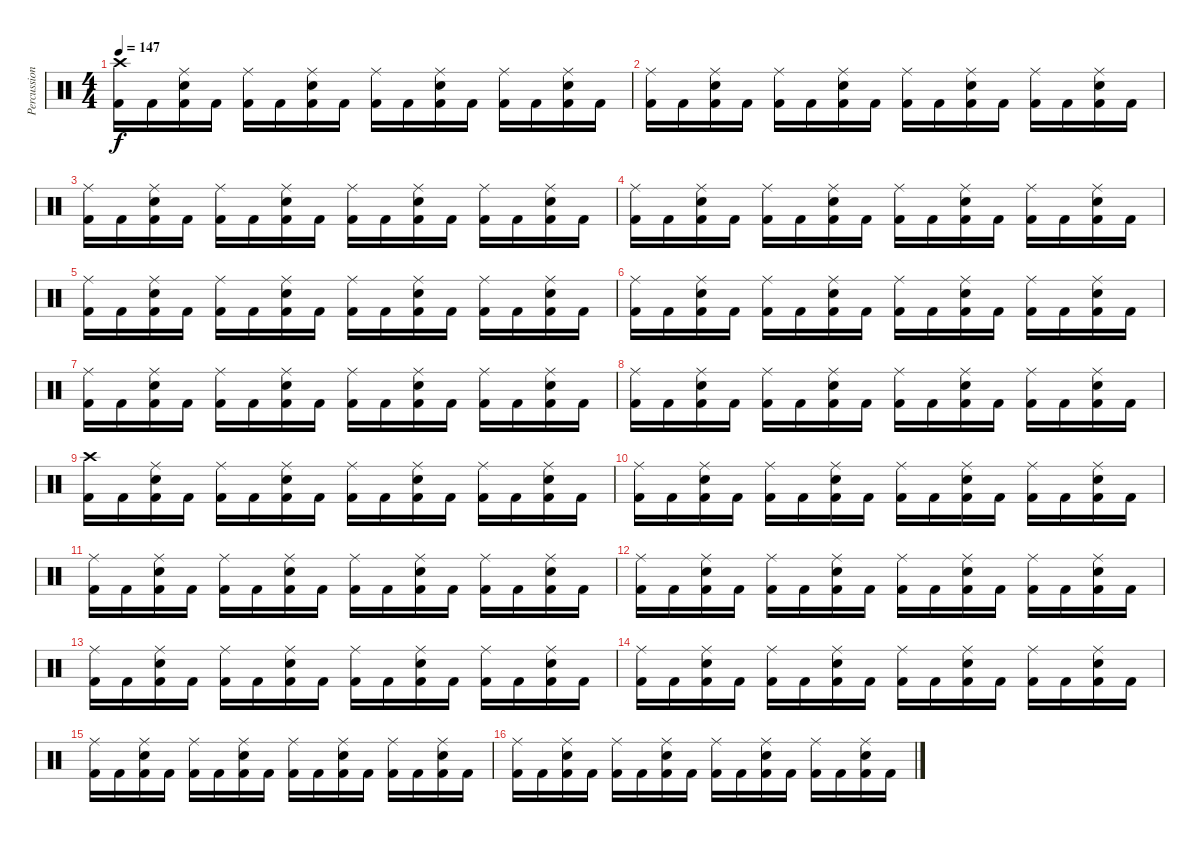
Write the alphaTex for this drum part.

\track ("Percussion" "Percussion") {instrument percussion}
\staff {score}
\articulation defaults
\ts (4 4)
\tempo 147
\clef neutral
\ks c
("Kick (hit) 2" "Crash high (hit)").16{dy f} "Kick (hit) 2".16 ("Kick (hit) 2" "Snare (hit) 2" "Ride (middle)").16 "Kick (hit) 2".16 ("Kick (hit) 2" "Ride (middle)").16 "Kick (hit) 2".16 ("Kick (hit) 2" "Snare (hit) 2" "Ride (middle)").16 "Kick (hit) 2".16 ("Kick (hit) 2" "Ride (middle)").16 "Kick (hit) 2".16 ("Kick (hit) 2" "Snare (hit) 2" "Ride (middle)").16 "Kick (hit) 2".16 ("Kick (hit) 2" "Ride (middle)").16 "Kick (hit) 2".16 ("Kick (hit) 2" "Snare (hit) 2" "Ride (middle)").16 "Kick (hit) 2".16 |
("Kick (hit) 2" "Ride (middle)").16 "Kick (hit) 2".16 ("Kick (hit) 2" "Snare (hit) 2" "Ride (middle)").16 "Kick (hit) 2".16 ("Kick (hit) 2" "Ride (middle)").16 "Kick (hit) 2".16 ("Kick (hit) 2" "Snare (hit) 2" "Ride (middle)").16 "Kick (hit) 2".16 ("Kick (hit) 2" "Ride (middle)").16 "Kick (hit) 2".16 ("Kick (hit) 2" "Snare (hit) 2" "Ride (middle)").16 "Kick (hit) 2".16 ("Kick (hit) 2" "Ride (middle)").16 "Kick (hit) 2".16 ("Kick (hit) 2" "Snare (hit) 2" "Ride (middle)").16 "Kick (hit) 2".16 |
("Kick (hit) 2" "Ride (middle)").16 "Kick (hit) 2".16 ("Kick (hit) 2" "Snare (hit) 2" "Ride (middle)").16 "Kick (hit) 2".16 ("Kick (hit) 2" "Ride (middle)").16 "Kick (hit) 2".16 ("Kick (hit) 2" "Snare (hit) 2" "Ride (middle)").16 "Kick (hit) 2".16 ("Kick (hit) 2" "Ride (middle)").16 "Kick (hit) 2".16 ("Kick (hit) 2" "Snare (hit) 2" "Ride (middle)").16 "Kick (hit) 2".16 ("Kick (hit) 2" "Ride (middle)").16 "Kick (hit) 2".16 ("Kick (hit) 2" "Snare (hit) 2" "Ride (middle)").16 "Kick (hit) 2".16 |
("Kick (hit) 2" "Ride (middle)").16 "Kick (hit) 2".16 ("Kick (hit) 2" "Snare (hit) 2" "Ride (middle)").16 "Kick (hit) 2".16 ("Kick (hit) 2" "Ride (middle)").16 "Kick (hit) 2".16 ("Kick (hit) 2" "Snare (hit) 2" "Ride (middle)").16 "Kick (hit) 2".16 ("Kick (hit) 2" "Ride (middle)").16 "Kick (hit) 2".16 ("Kick (hit) 2" "Snare (hit) 2" "Ride (middle)").16 "Kick (hit) 2".16 ("Kick (hit) 2" "Ride (middle)").16 "Kick (hit) 2".16 ("Kick (hit) 2" "Snare (hit) 2" "Ride (middle)").16 "Kick (hit) 2".16 |
("Kick (hit) 2" "Ride (middle)").16 "Kick (hit) 2".16 ("Kick (hit) 2" "Snare (hit) 2" "Ride (middle)").16 "Kick (hit) 2".16 ("Kick (hit) 2" "Ride (middle)").16 "Kick (hit) 2".16 ("Kick (hit) 2" "Snare (hit) 2" "Ride (middle)").16 "Kick (hit) 2".16 ("Kick (hit) 2" "Ride (middle)").16 "Kick (hit) 2".16 ("Kick (hit) 2" "Snare (hit) 2" "Ride (middle)").16 "Kick (hit) 2".16 ("Kick (hit) 2" "Ride (middle)").16 "Kick (hit) 2".16 ("Kick (hit) 2" "Snare (hit) 2" "Ride (middle)").16 "Kick (hit) 2".16 |
("Kick (hit) 2" "Ride (middle)").16 "Kick (hit) 2".16 ("Kick (hit) 2" "Snare (hit) 2" "Ride (middle)").16 "Kick (hit) 2".16 ("Kick (hit) 2" "Ride (middle)").16 "Kick (hit) 2".16 ("Kick (hit) 2" "Snare (hit) 2" "Ride (middle)").16 "Kick (hit) 2".16 ("Kick (hit) 2" "Ride (middle)").16 "Kick (hit) 2".16 ("Kick (hit) 2" "Snare (hit) 2" "Ride (middle)").16 "Kick (hit) 2".16 ("Kick (hit) 2" "Ride (middle)").16 "Kick (hit) 2".16 ("Kick (hit) 2" "Snare (hit) 2" "Ride (middle)").16 "Kick (hit) 2".16 |
("Kick (hit) 2" "Ride (middle)").16 "Kick (hit) 2".16 ("Kick (hit) 2" "Snare (hit) 2" "Ride (middle)").16 "Kick (hit) 2".16 ("Kick (hit) 2" "Ride (middle)").16 "Kick (hit) 2".16 ("Kick (hit) 2" "Snare (hit) 2" "Ride (middle)").16 "Kick (hit) 2".16 ("Kick (hit) 2" "Ride (middle)").16 "Kick (hit) 2".16 ("Kick (hit) 2" "Snare (hit) 2" "Ride (middle)").16 "Kick (hit) 2".16 ("Kick (hit) 2" "Ride (middle)").16 "Kick (hit) 2".16 ("Kick (hit) 2" "Snare (hit) 2" "Ride (middle)").16 "Kick (hit) 2".16 |
("Kick (hit) 2" "Ride (middle)").16 "Kick (hit) 2".16 ("Kick (hit) 2" "Snare (hit) 2" "Ride (middle)").16 "Kick (hit) 2".16 ("Kick (hit) 2" "Ride (middle)").16 "Kick (hit) 2".16 ("Kick (hit) 2" "Snare (hit) 2" "Ride (middle)").16 "Kick (hit) 2".16 ("Kick (hit) 2" "Ride (middle)").16 "Kick (hit) 2".16 ("Kick (hit) 2" "Snare (hit) 2" "Ride (middle)").16 "Kick (hit) 2".16 ("Kick (hit) 2" "Ride (middle)").16 "Kick (hit) 2".16 ("Kick (hit) 2" "Snare (hit) 2" "Ride (middle)").16 "Kick (hit) 2".16 |
("Kick (hit) 2" "Crash high (hit)").16 "Kick (hit) 2".16 ("Kick (hit) 2" "Snare (hit) 2" "Ride (middle)").16 "Kick (hit) 2".16 ("Kick (hit) 2" "Ride (middle)").16 "Kick (hit) 2".16 ("Kick (hit) 2" "Snare (hit) 2" "Ride (middle)").16 "Kick (hit) 2".16 ("Kick (hit) 2" "Ride (middle)").16 "Kick (hit) 2".16 ("Kick (hit) 2" "Snare (hit) 2" "Ride (middle)").16 "Kick (hit) 2".16 ("Kick (hit) 2" "Ride (middle)").16 "Kick (hit) 2".16 ("Kick (hit) 2" "Snare (hit) 2" "Ride (middle)").16 "Kick (hit) 2".16 |
("Kick (hit) 2" "Ride (middle)").16 "Kick (hit) 2".16 ("Kick (hit) 2" "Snare (hit) 2" "Ride (middle)").16 "Kick (hit) 2".16 ("Kick (hit) 2" "Ride (middle)").16 "Kick (hit) 2".16 ("Kick (hit) 2" "Snare (hit) 2" "Ride (middle)").16 "Kick (hit) 2".16 ("Kick (hit) 2" "Ride (middle)").16 "Kick (hit) 2".16 ("Kick (hit) 2" "Snare (hit) 2" "Ride (middle)").16 "Kick (hit) 2".16 ("Kick (hit) 2" "Ride (middle)").16 "Kick (hit) 2".16 ("Kick (hit) 2" "Snare (hit) 2" "Ride (middle)").16 "Kick (hit) 2".16 |
("Kick (hit) 2" "Ride (middle)").16 "Kick (hit) 2".16 ("Kick (hit) 2" "Snare (hit) 2" "Ride (middle)").16 "Kick (hit) 2".16 ("Kick (hit) 2" "Ride (middle)").16 "Kick (hit) 2".16 ("Kick (hit) 2" "Snare (hit) 2" "Ride (middle)").16 "Kick (hit) 2".16 ("Kick (hit) 2" "Ride (middle)").16 "Kick (hit) 2".16 ("Kick (hit) 2" "Snare (hit) 2" "Ride (middle)").16 "Kick (hit) 2".16 ("Kick (hit) 2" "Ride (middle)").16 "Kick (hit) 2".16 ("Kick (hit) 2" "Snare (hit) 2" "Ride (middle)").16 "Kick (hit) 2".16 |
("Kick (hit) 2" "Ride (middle)").16 "Kick (hit) 2".16 ("Kick (hit) 2" "Snare (hit) 2" "Ride (middle)").16 "Kick (hit) 2".16 ("Kick (hit) 2" "Ride (middle)").16 "Kick (hit) 2".16 ("Kick (hit) 2" "Snare (hit) 2" "Ride (middle)").16 "Kick (hit) 2".16 ("Kick (hit) 2" "Ride (middle)").16 "Kick (hit) 2".16 ("Kick (hit) 2" "Snare (hit) 2" "Ride (middle)").16 "Kick (hit) 2".16 ("Kick (hit) 2" "Ride (middle)").16 "Kick (hit) 2".16 ("Kick (hit) 2" "Snare (hit) 2" "Ride (middle)").16 "Kick (hit) 2".16 |
("Kick (hit) 2" "Ride (middle)").16 "Kick (hit) 2".16 ("Kick (hit) 2" "Snare (hit) 2" "Ride (middle)").16 "Kick (hit) 2".16 ("Kick (hit) 2" "Ride (middle)").16 "Kick (hit) 2".16 ("Kick (hit) 2" "Snare (hit) 2" "Ride (middle)").16 "Kick (hit) 2".16 ("Kick (hit) 2" "Ride (middle)").16 "Kick (hit) 2".16 ("Kick (hit) 2" "Snare (hit) 2" "Ride (middle)").16 "Kick (hit) 2".16 ("Kick (hit) 2" "Ride (middle)").16 "Kick (hit) 2".16 ("Kick (hit) 2" "Snare (hit) 2" "Ride (middle)").16 "Kick (hit) 2".16 |
("Kick (hit) 2" "Ride (middle)").16 "Kick (hit) 2".16 ("Kick (hit) 2" "Snare (hit) 2" "Ride (middle)").16 "Kick (hit) 2".16 ("Kick (hit) 2" "Ride (middle)").16 "Kick (hit) 2".16 ("Kick (hit) 2" "Snare (hit) 2" "Ride (middle)").16 "Kick (hit) 2".16 ("Kick (hit) 2" "Ride (middle)").16 "Kick (hit) 2".16 ("Kick (hit) 2" "Snare (hit) 2" "Ride (middle)").16 "Kick (hit) 2".16 ("Kick (hit) 2" "Ride (middle)").16 "Kick (hit) 2".16 ("Kick (hit) 2" "Snare (hit) 2" "Ride (middle)").16 "Kick (hit) 2".16 |
("Kick (hit) 2" "Ride (middle)").16 "Kick (hit) 2".16 ("Kick (hit) 2" "Snare (hit) 2" "Ride (middle)").16 "Kick (hit) 2".16 ("Kick (hit) 2" "Ride (middle)").16 "Kick (hit) 2".16 ("Kick (hit) 2" "Snare (hit) 2" "Ride (middle)").16 "Kick (hit) 2".16 ("Kick (hit) 2" "Ride (middle)").16 "Kick (hit) 2".16 ("Kick (hit) 2" "Snare (hit) 2" "Ride (middle)").16 "Kick (hit) 2".16 ("Kick (hit) 2" "Ride (middle)").16 "Kick (hit) 2".16 ("Kick (hit) 2" "Snare (hit) 2" "Ride (middle)").16 "Kick (hit) 2".16 |
("Kick (hit) 2" "Ride (middle)").16 "Kick (hit) 2".16 ("Kick (hit) 2" "Snare (hit) 2" "Ride (middle)").16 "Kick (hit) 2".16 ("Kick (hit) 2" "Ride (middle)").16 "Kick (hit) 2".16 ("Kick (hit) 2" "Snare (hit) 2" "Ride (middle)").16 "Kick (hit) 2".16 ("Kick (hit) 2" "Ride (middle)").16 "Kick (hit) 2".16 ("Kick (hit) 2" "Snare (hit) 2" "Ride (middle)").16 "Kick (hit) 2".16 ("Kick (hit) 2" "Ride (middle)").16 "Kick (hit) 2".16 ("Kick (hit) 2" "Snare (hit) 2" "Ride (middle)").16 "Kick (hit) 2".16
